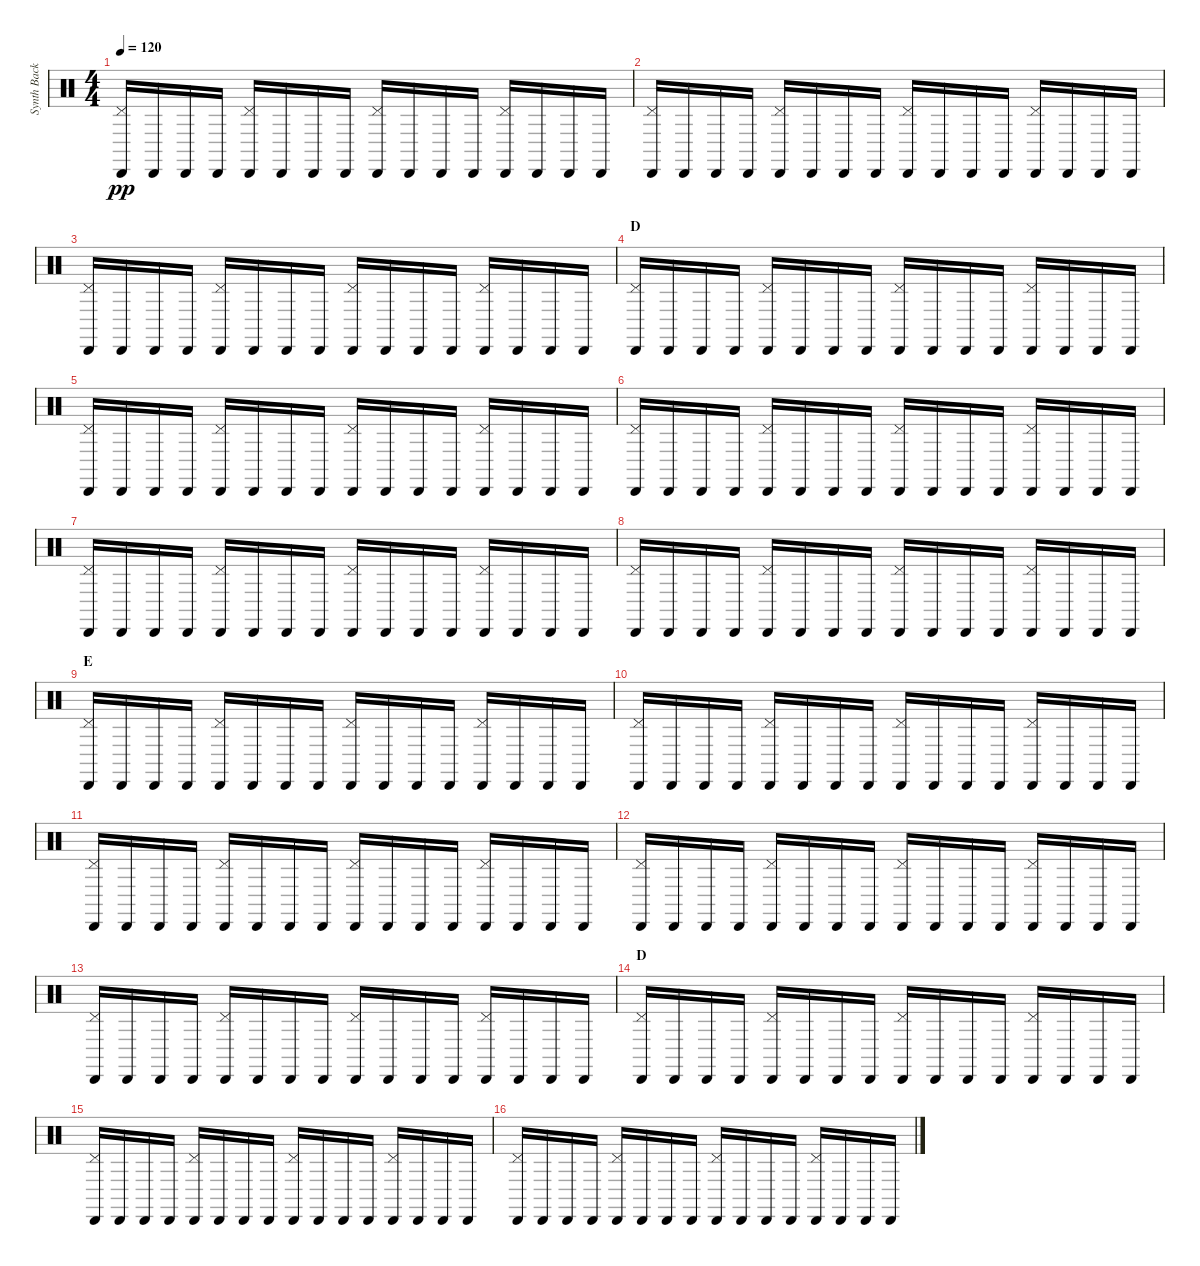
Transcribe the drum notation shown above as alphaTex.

\track ("Synth Background Rhythm" "Synth Back") {instrument percussion}
\staff {score}
\articulation defaults
\ts (4 4)
\tempo 120
\clef neutral
\ks c
("Pedal Hi-Hat (hit)" "Cabasa (hit)").16{dy pp} "Cabasa (hit)".16 "Cabasa (hit)".16 "Cabasa (hit)".16 ("Pedal Hi-Hat (hit)" "Cabasa (hit)").16 "Cabasa (hit)".16 "Cabasa (hit)".16 "Cabasa (hit)".16 ("Pedal Hi-Hat (hit)" "Cabasa (hit)").16 "Cabasa (hit)".16 "Cabasa (hit)".16 "Cabasa (hit)".16 ("Pedal Hi-Hat (hit)" "Cabasa (hit)").16 "Cabasa (hit)".16 "Cabasa (hit)".16 "Cabasa (hit)".16 |
("Pedal Hi-Hat (hit)" "Cabasa (hit)").16 "Cabasa (hit)".16 "Cabasa (hit)".16 "Cabasa (hit)".16 ("Pedal Hi-Hat (hit)" "Cabasa (hit)").16 "Cabasa (hit)".16 "Cabasa (hit)".16 "Cabasa (hit)".16 ("Pedal Hi-Hat (hit)" "Cabasa (hit)").16 "Cabasa (hit)".16 "Cabasa (hit)".16 "Cabasa (hit)".16 ("Pedal Hi-Hat (hit)" "Cabasa (hit)").16 "Cabasa (hit)".16 "Cabasa (hit)".16 "Cabasa (hit)".16 |
("Pedal Hi-Hat (hit)" "Cabasa (hit)").16 "Cabasa (hit)".16 "Cabasa (hit)".16 "Cabasa (hit)".16 ("Pedal Hi-Hat (hit)" "Cabasa (hit)").16 "Cabasa (hit)".16 "Cabasa (hit)".16 "Cabasa (hit)".16 ("Pedal Hi-Hat (hit)" "Cabasa (hit)").16 "Cabasa (hit)".16 "Cabasa (hit)".16 "Cabasa (hit)".16 ("Pedal Hi-Hat (hit)" "Cabasa (hit)").16 "Cabasa (hit)".16 "Cabasa (hit)".16 "Cabasa (hit)".16 |
\section ("" "D")
("Pedal Hi-Hat (hit)" "Cabasa (hit)").16 "Cabasa (hit)".16 "Cabasa (hit)".16 "Cabasa (hit)".16 ("Pedal Hi-Hat (hit)" "Cabasa (hit)").16 "Cabasa (hit)".16 "Cabasa (hit)".16 "Cabasa (hit)".16 ("Pedal Hi-Hat (hit)" "Cabasa (hit)").16 "Cabasa (hit)".16 "Cabasa (hit)".16 "Cabasa (hit)".16 ("Pedal Hi-Hat (hit)" "Cabasa (hit)").16 "Cabasa (hit)".16 "Cabasa (hit)".16 "Cabasa (hit)".16 |
("Pedal Hi-Hat (hit)" "Cabasa (hit)").16 "Cabasa (hit)".16 "Cabasa (hit)".16 "Cabasa (hit)".16 ("Pedal Hi-Hat (hit)" "Cabasa (hit)").16 "Cabasa (hit)".16 "Cabasa (hit)".16 "Cabasa (hit)".16 ("Pedal Hi-Hat (hit)" "Cabasa (hit)").16 "Cabasa (hit)".16 "Cabasa (hit)".16 "Cabasa (hit)".16 ("Pedal Hi-Hat (hit)" "Cabasa (hit)").16 "Cabasa (hit)".16 "Cabasa (hit)".16 "Cabasa (hit)".16 |
("Pedal Hi-Hat (hit)" "Cabasa (hit)").16 "Cabasa (hit)".16 "Cabasa (hit)".16 "Cabasa (hit)".16 ("Pedal Hi-Hat (hit)" "Cabasa (hit)").16 "Cabasa (hit)".16 "Cabasa (hit)".16 "Cabasa (hit)".16 ("Pedal Hi-Hat (hit)" "Cabasa (hit)").16 "Cabasa (hit)".16 "Cabasa (hit)".16 "Cabasa (hit)".16 ("Pedal Hi-Hat (hit)" "Cabasa (hit)").16 "Cabasa (hit)".16 "Cabasa (hit)".16 "Cabasa (hit)".16 |
("Pedal Hi-Hat (hit)" "Cabasa (hit)").16 "Cabasa (hit)".16 "Cabasa (hit)".16 "Cabasa (hit)".16 ("Pedal Hi-Hat (hit)" "Cabasa (hit)").16 "Cabasa (hit)".16 "Cabasa (hit)".16 "Cabasa (hit)".16 ("Pedal Hi-Hat (hit)" "Cabasa (hit)").16 "Cabasa (hit)".16 "Cabasa (hit)".16 "Cabasa (hit)".16 ("Pedal Hi-Hat (hit)" "Cabasa (hit)").16 "Cabasa (hit)".16 "Cabasa (hit)".16 "Cabasa (hit)".16 |
("Pedal Hi-Hat (hit)" "Cabasa (hit)").16 "Cabasa (hit)".16 "Cabasa (hit)".16 "Cabasa (hit)".16 ("Pedal Hi-Hat (hit)" "Cabasa (hit)").16 "Cabasa (hit)".16 "Cabasa (hit)".16 "Cabasa (hit)".16 ("Pedal Hi-Hat (hit)" "Cabasa (hit)").16 "Cabasa (hit)".16 "Cabasa (hit)".16 "Cabasa (hit)".16 ("Pedal Hi-Hat (hit)" "Cabasa (hit)").16 "Cabasa (hit)".16 "Cabasa (hit)".16 "Cabasa (hit)".16 |
\section ("" "E")
("Pedal Hi-Hat (hit)" "Cabasa (hit)").16 "Cabasa (hit)".16 "Cabasa (hit)".16 "Cabasa (hit)".16 ("Pedal Hi-Hat (hit)" "Cabasa (hit)").16 "Cabasa (hit)".16 "Cabasa (hit)".16 "Cabasa (hit)".16 ("Pedal Hi-Hat (hit)" "Cabasa (hit)").16 "Cabasa (hit)".16 "Cabasa (hit)".16 "Cabasa (hit)".16 ("Pedal Hi-Hat (hit)" "Cabasa (hit)").16 "Cabasa (hit)".16 "Cabasa (hit)".16 "Cabasa (hit)".16 |
("Pedal Hi-Hat (hit)" "Cabasa (hit)").16 "Cabasa (hit)".16 "Cabasa (hit)".16 "Cabasa (hit)".16 ("Pedal Hi-Hat (hit)" "Cabasa (hit)").16 "Cabasa (hit)".16 "Cabasa (hit)".16 "Cabasa (hit)".16 ("Pedal Hi-Hat (hit)" "Cabasa (hit)").16 "Cabasa (hit)".16 "Cabasa (hit)".16 "Cabasa (hit)".16 ("Pedal Hi-Hat (hit)" "Cabasa (hit)").16 "Cabasa (hit)".16 "Cabasa (hit)".16 "Cabasa (hit)".16 |
("Pedal Hi-Hat (hit)" "Cabasa (hit)").16 "Cabasa (hit)".16 "Cabasa (hit)".16 "Cabasa (hit)".16 ("Pedal Hi-Hat (hit)" "Cabasa (hit)").16 "Cabasa (hit)".16 "Cabasa (hit)".16 "Cabasa (hit)".16 ("Pedal Hi-Hat (hit)" "Cabasa (hit)").16 "Cabasa (hit)".16 "Cabasa (hit)".16 "Cabasa (hit)".16 ("Pedal Hi-Hat (hit)" "Cabasa (hit)").16 "Cabasa (hit)".16 "Cabasa (hit)".16 "Cabasa (hit)".16 |
("Pedal Hi-Hat (hit)" "Cabasa (hit)").16 "Cabasa (hit)".16 "Cabasa (hit)".16 "Cabasa (hit)".16 ("Pedal Hi-Hat (hit)" "Cabasa (hit)").16 "Cabasa (hit)".16 "Cabasa (hit)".16 "Cabasa (hit)".16 ("Pedal Hi-Hat (hit)" "Cabasa (hit)").16 "Cabasa (hit)".16 "Cabasa (hit)".16 "Cabasa (hit)".16 ("Pedal Hi-Hat (hit)" "Cabasa (hit)").16 "Cabasa (hit)".16 "Cabasa (hit)".16 "Cabasa (hit)".16 |
("Pedal Hi-Hat (hit)" "Cabasa (hit)").16 "Cabasa (hit)".16 "Cabasa (hit)".16 "Cabasa (hit)".16 ("Pedal Hi-Hat (hit)" "Cabasa (hit)").16 "Cabasa (hit)".16 "Cabasa (hit)".16 "Cabasa (hit)".16 ("Pedal Hi-Hat (hit)" "Cabasa (hit)").16 "Cabasa (hit)".16 "Cabasa (hit)".16 "Cabasa (hit)".16 ("Pedal Hi-Hat (hit)" "Cabasa (hit)").16 "Cabasa (hit)".16 "Cabasa (hit)".16 "Cabasa (hit)".16 |
\section ("" "D")
("Pedal Hi-Hat (hit)" "Cabasa (hit)").16 "Cabasa (hit)".16 "Cabasa (hit)".16 "Cabasa (hit)".16 ("Pedal Hi-Hat (hit)" "Cabasa (hit)").16 "Cabasa (hit)".16 "Cabasa (hit)".16 "Cabasa (hit)".16 ("Pedal Hi-Hat (hit)" "Cabasa (hit)").16 "Cabasa (hit)".16 "Cabasa (hit)".16 "Cabasa (hit)".16 ("Pedal Hi-Hat (hit)" "Cabasa (hit)").16 "Cabasa (hit)".16 "Cabasa (hit)".16 "Cabasa (hit)".16 |
("Pedal Hi-Hat (hit)" "Cabasa (hit)").16 "Cabasa (hit)".16 "Cabasa (hit)".16 "Cabasa (hit)".16 ("Pedal Hi-Hat (hit)" "Cabasa (hit)").16 "Cabasa (hit)".16 "Cabasa (hit)".16 "Cabasa (hit)".16 ("Pedal Hi-Hat (hit)" "Cabasa (hit)").16 "Cabasa (hit)".16 "Cabasa (hit)".16 "Cabasa (hit)".16 ("Pedal Hi-Hat (hit)" "Cabasa (hit)").16 "Cabasa (hit)".16 "Cabasa (hit)".16 "Cabasa (hit)".16 |
("Pedal Hi-Hat (hit)" "Cabasa (hit)").16 "Cabasa (hit)".16 "Cabasa (hit)".16 "Cabasa (hit)".16 ("Pedal Hi-Hat (hit)" "Cabasa (hit)").16 "Cabasa (hit)".16 "Cabasa (hit)".16 "Cabasa (hit)".16 ("Pedal Hi-Hat (hit)" "Cabasa (hit)").16 "Cabasa (hit)".16 "Cabasa (hit)".16 "Cabasa (hit)".16 ("Pedal Hi-Hat (hit)" "Cabasa (hit)").16 "Cabasa (hit)".16 "Cabasa (hit)".16 "Cabasa (hit)".16
